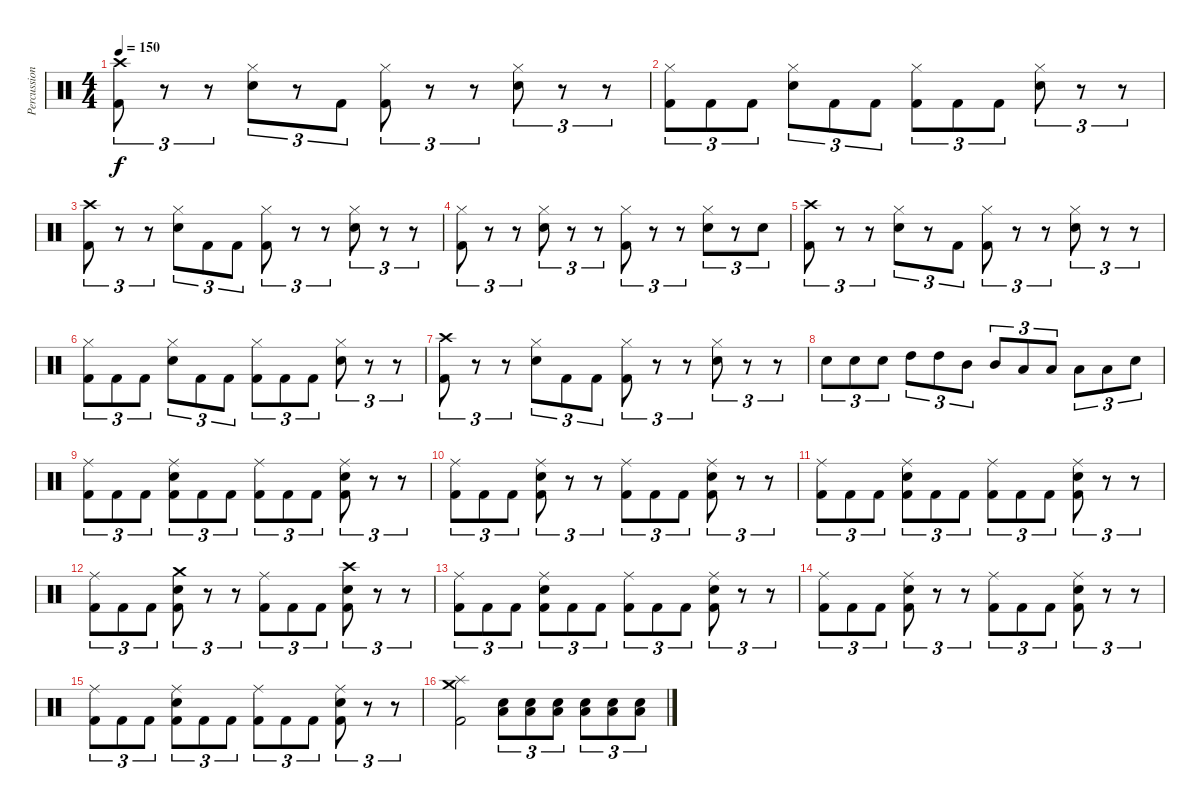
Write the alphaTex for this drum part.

\track ("Percussion" "Percussion") {instrument percussion}
\staff {score}
\articulation defaults
\ts (4 4)
\tempo 150
\clef neutral
\ks c
("Crash high (hit)" "Kick (hit) 2").8{tu (3 2) dy f} r.8{tu (3 2)} r.8{tu (3 2)} ("Hi-Hat (closed)" "Snare (hit) 2").8{tu (3 2)} r.8{tu (3 2)} "Kick (hit) 2".8{tu (3 2)} ("Hi-Hat (closed)" "Kick (hit) 2").8{tu (3 2)} r.8{tu (3 2)} r.8{tu (3 2)} ("Hi-Hat (closed)" "Snare (hit) 2").8{tu (3 2)} r.8{tu (3 2)} r.8{tu (3 2)} |
("Hi-Hat (closed)" "Kick (hit) 2").8{tu (3 2)} "Kick (hit) 2".8{tu (3 2)} "Kick (hit) 2".8{tu (3 2)} ("Hi-Hat (closed)" "Snare (hit) 2").8{tu (3 2)} "Kick (hit) 2".8{tu (3 2)} "Kick (hit) 2".8{tu (3 2)} ("Hi-Hat (closed)" "Kick (hit) 2").8{tu (3 2)} "Kick (hit) 2".8{tu (3 2)} "Kick (hit) 2".8{tu (3 2)} ("Hi-Hat (closed)" "Snare (hit) 2").8{tu (3 2)} r.8{tu (3 2)} r.8{tu (3 2)} |
("Crash high (hit)" "Kick (hit) 2").8{tu (3 2)} r.8{tu (3 2)} r.8{tu (3 2)} ("Hi-Hat (closed)" "Snare (hit) 2").8{tu (3 2)} "Kick (hit) 2".8{tu (3 2)} "Kick (hit) 2".8{tu (3 2)} ("Hi-Hat (closed)" "Kick (hit) 2").8{tu (3 2)} r.8{tu (3 2)} r.8{tu (3 2)} ("Hi-Hat (closed)" "Snare (hit) 2").8{tu (3 2)} r.8{tu (3 2)} r.8{tu (3 2)} |
("Hi-Hat (closed)" "Kick (hit) 2").8{tu (3 2)} r.8{tu (3 2)} r.8{tu (3 2)} ("Hi-Hat (closed)" "Snare (hit) 2").8{tu (3 2)} r.8{tu (3 2)} r.8{tu (3 2)} ("Hi-Hat (closed)" "Kick (hit) 2").8{tu (3 2)} r.8{tu (3 2)} r.8{tu (3 2)} ("Hi-Hat (closed)" "Snare (hit) 2").8{tu (3 2)} r.8{tu (3 2)} "Snare (hit) 2".8{tu (3 2)} |
("Crash high (hit)" "Kick (hit) 2").8{tu (3 2)} r.8{tu (3 2)} r.8{tu (3 2)} ("Hi-Hat (closed)" "Snare (hit) 2").8{tu (3 2)} r.8{tu (3 2)} "Kick (hit) 2".8{tu (3 2)} ("Hi-Hat (closed)" "Kick (hit) 2").8{tu (3 2)} r.8{tu (3 2)} r.8{tu (3 2)} ("Hi-Hat (closed)" "Snare (hit) 2").8{tu (3 2)} r.8{tu (3 2)} r.8{tu (3 2)} |
("Hi-Hat (closed)" "Kick (hit) 2").8{tu (3 2)} "Kick (hit) 2".8{tu (3 2)} "Kick (hit) 2".8{tu (3 2)} ("Hi-Hat (closed)" "Snare (hit) 2").8{tu (3 2)} "Kick (hit) 2".8{tu (3 2)} "Kick (hit) 2".8{tu (3 2)} ("Hi-Hat (closed)" "Kick (hit) 2").8{tu (3 2)} "Kick (hit) 2".8{tu (3 2)} "Kick (hit) 2".8{tu (3 2)} ("Hi-Hat (closed)" "Snare (hit) 2").8{tu (3 2)} r.8{tu (3 2)} r.8{tu (3 2)} |
("Crash high (hit)" "Kick (hit) 2").8{tu (3 2)} r.8{tu (3 2)} r.8{tu (3 2)} ("Hi-Hat (closed)" "Snare (hit) 2").8{tu (3 2)} "Kick (hit) 2".8{tu (3 2)} "Kick (hit) 2".8{tu (3 2)} ("Hi-Hat (closed)" "Kick (hit) 2").8{tu (3 2)} r.8{tu (3 2)} r.8{tu (3 2)} ("Hi-Hat (closed)" "Snare (hit) 2").8{tu (3 2)} r.8{tu (3 2)} r.8{tu (3 2)} |
"Snare (hit) 2".8{tu (3 2)} "Snare (hit) 2".8{tu (3 2)} "Snare (hit) 2".8{tu (3 2)} "High Tom (hit)".8{tu (3 2)} "High Tom (hit)".8{tu (3 2)} "Mid Tom (hit)".8{tu (3 2)} "Mid Tom (hit)".8{tu (3 2)} "Low Tom (hit)".8{tu (3 2)} "Low Tom (hit)".8{tu (3 2)} "Low Floor Tom (hit)".8{tu (3 2)} "Low Floor Tom (hit)".8{tu (3 2)} "Snare (hit) 2".8{tu (3 2)} |
("Ride (middle)" "Kick (hit) 2").8{tu (3 2)} "Kick (hit) 2".8{tu (3 2)} "Kick (hit) 2".8{tu (3 2)} ("Ride (middle)" "Snare (hit) 2" "Kick (hit) 2").8{tu (3 2)} "Kick (hit) 2".8{tu (3 2)} "Kick (hit) 2".8{tu (3 2)} ("Ride (middle)" "Kick (hit) 2").8{tu (3 2)} "Kick (hit) 2".8{tu (3 2)} "Kick (hit) 2".8{tu (3 2)} ("Ride (middle)" "Snare (hit) 2" "Kick (hit) 2").8{tu (3 2)} r.8{tu (3 2)} r.8{tu (3 2)} |
("Ride (middle)" "Kick (hit) 2").8{tu (3 2)} "Kick (hit) 2".8{tu (3 2)} "Kick (hit) 2".8{tu (3 2)} ("Ride (middle)" "Snare (hit) 2" "Kick (hit) 2").8{tu (3 2)} r.8{tu (3 2)} r.8{tu (3 2)} ("Ride (middle)" "Kick (hit) 2").8{tu (3 2)} "Kick (hit) 2".8{tu (3 2)} "Kick (hit) 2".8{tu (3 2)} ("Ride (middle)" "Snare (hit) 2" "Kick (hit) 2").8{tu (3 2)} r.8{tu (3 2)} r.8{tu (3 2)} |
("Ride (middle)" "Kick (hit) 2").8{tu (3 2)} "Kick (hit) 2".8{tu (3 2)} "Kick (hit) 2".8{tu (3 2)} ("Ride (middle)" "Snare (hit) 2" "Kick (hit) 2").8{tu (3 2)} "Kick (hit) 2".8{tu (3 2)} "Kick (hit) 2".8{tu (3 2)} ("Ride (middle)" "Kick (hit) 2").8{tu (3 2)} "Kick (hit) 2".8{tu (3 2)} "Kick (hit) 2".8{tu (3 2)} ("Ride (middle)" "Snare (hit) 2" "Kick (hit) 2").8{tu (3 2)} r.8{tu (3 2)} r.8{tu (3 2)} |
("Ride (middle)" "Kick (hit) 2").8{tu (3 2)} "Kick (hit) 2".8{tu (3 2)} "Kick (hit) 2".8{tu (3 2)} ("Crash medium (hit)" "Snare (hit) 2" "Kick (hit) 2").8{tu (3 2)} r.8{tu (3 2)} r.8{tu (3 2)} ("Ride (middle)" "Kick (hit) 2").8{tu (3 2)} "Kick (hit) 2".8{tu (3 2)} "Kick (hit) 2".8{tu (3 2)} ("Crash high (hit)" "Snare (hit) 2" "Kick (hit) 2").8{tu (3 2)} r.8{tu (3 2)} r.8{tu (3 2)} |
("Ride (middle)" "Kick (hit) 2").8{tu (3 2)} "Kick (hit) 2".8{tu (3 2)} "Kick (hit) 2".8{tu (3 2)} ("Ride (middle)" "Snare (hit) 2" "Kick (hit) 2").8{tu (3 2)} "Kick (hit) 2".8{tu (3 2)} "Kick (hit) 2".8{tu (3 2)} ("Ride (middle)" "Kick (hit) 2").8{tu (3 2)} "Kick (hit) 2".8{tu (3 2)} "Kick (hit) 2".8{tu (3 2)} ("Ride (middle)" "Snare (hit) 2" "Kick (hit) 2").8{tu (3 2)} r.8{tu (3 2)} r.8{tu (3 2)} |
("Ride (middle)" "Kick (hit) 2").8{tu (3 2)} "Kick (hit) 2".8{tu (3 2)} "Kick (hit) 2".8{tu (3 2)} ("Ride (middle)" "Snare (hit) 2" "Kick (hit) 2").8{tu (3 2)} r.8{tu (3 2)} r.8{tu (3 2)} ("Ride (middle)" "Kick (hit) 2").8{tu (3 2)} "Kick (hit) 2".8{tu (3 2)} "Kick (hit) 2".8{tu (3 2)} ("Ride (middle)" "Snare (hit) 2" "Kick (hit) 2").8{tu (3 2)} r.8{tu (3 2)} r.8{tu (3 2)} |
("Ride (middle)" "Kick (hit) 2").8{tu (3 2)} "Kick (hit) 2".8{tu (3 2)} "Kick (hit) 2".8{tu (3 2)} ("Ride (middle)" "Snare (hit) 2" "Kick (hit) 2").8{tu (3 2)} "Kick (hit) 2".8{tu (3 2)} "Kick (hit) 2".8{tu (3 2)} ("Ride (middle)" "Kick (hit) 2").8{tu (3 2)} "Kick (hit) 2".8{tu (3 2)} "Kick (hit) 2".8{tu (3 2)} ("Ride (middle)" "Snare (hit) 2" "Kick (hit) 2").8{tu (3 2)} r.8{tu (3 2)} r.8{tu (3 2)} |
("Splash (hit)" "Crash medium (hit)" "Kick (hit) 2").2 ("Low Floor Tom (hit)" "Snare (hit) 2").8{tu (3 2) volume 3} ("Low Floor Tom (hit)" "Snare (hit) 2").8{tu (3 2) volume 4} ("Low Floor Tom (hit)" "Snare (hit) 2").8{tu (3 2) volume 5} ("Low Floor Tom (hit)" "Snare (hit) 2").8{tu (3 2) volume 6} ("Low Floor Tom (hit)" "Snare (hit) 2").8{tu (3 2) volume 7} ("Low Floor Tom (hit)" "Snare (hit) 2").8{tu (3 2) volume 9}
